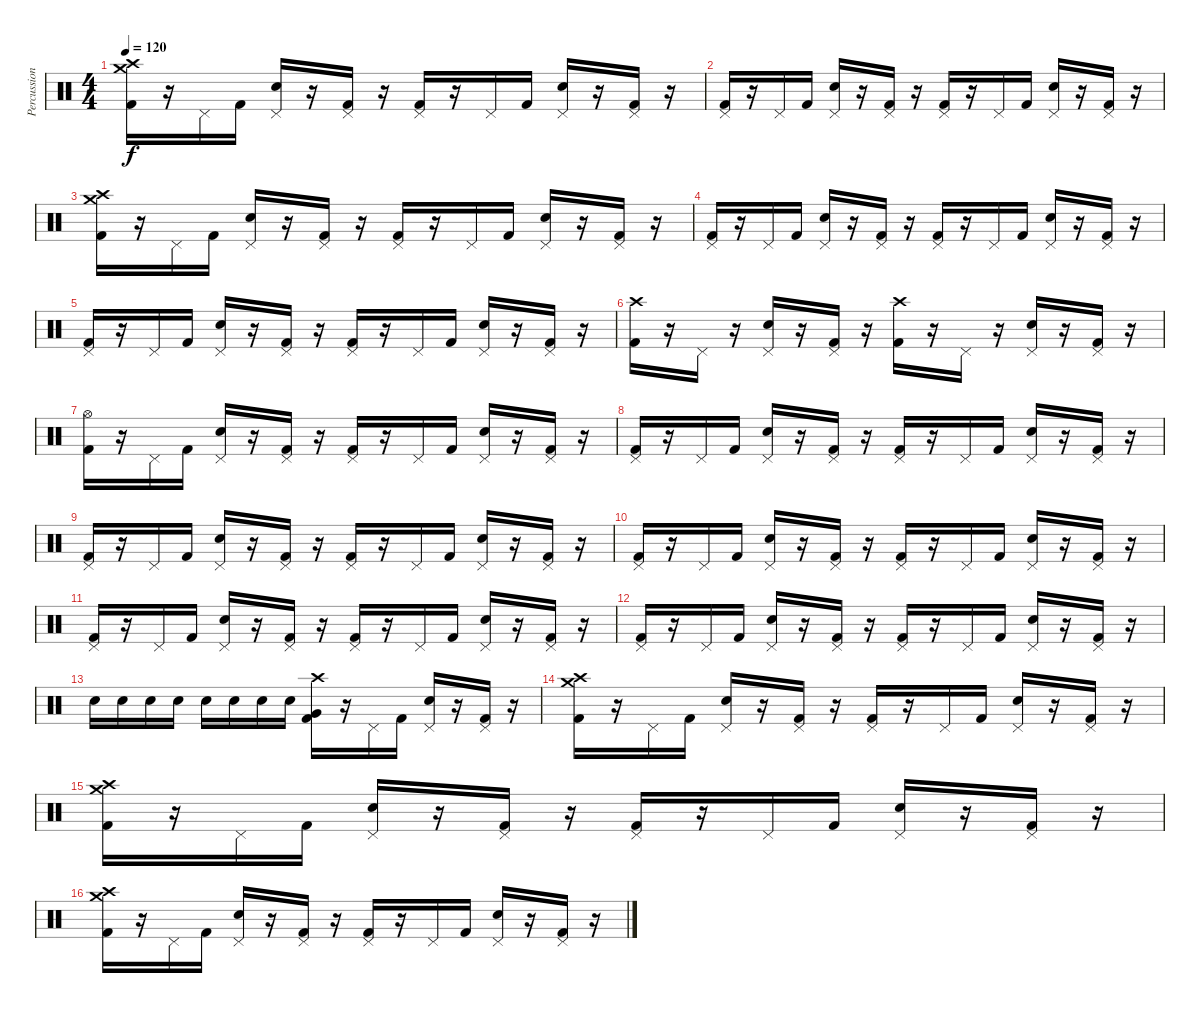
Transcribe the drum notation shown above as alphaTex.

\track ("Percussion" "Percussion") {instrument percussion}
\staff {score}
\articulation defaults
\ts (4 4)
\tempo 120
\clef neutral
\ks c
("Crash medium (hit)" "Crash high (hit)" "Kick (hit) 2").16{dy f} r.16 "Pedal Hi-Hat (hit)".16 "Kick (hit) 2".16 ("Pedal Hi-Hat (hit)" "Snare (hit) 2").16 r.16 ("Pedal Hi-Hat (hit)" "Kick (hit) 2").16 r.16 ("Pedal Hi-Hat (hit)" "Kick (hit) 2").16 r.16 "Pedal Hi-Hat (hit)".16 "Kick (hit) 2".16 ("Pedal Hi-Hat (hit)" "Snare (hit) 2").16 r.16 ("Pedal Hi-Hat (hit)" "Kick (hit) 2").16 r.16 |
("Pedal Hi-Hat (hit)" "Kick (hit) 2").16 r.16 "Pedal Hi-Hat (hit)".16 "Kick (hit) 2".16 ("Pedal Hi-Hat (hit)" "Snare (hit) 2").16 r.16 ("Pedal Hi-Hat (hit)" "Kick (hit) 2").16 r.16 ("Pedal Hi-Hat (hit)" "Kick (hit) 2").16 r.16 "Pedal Hi-Hat (hit)".16 "Kick (hit) 2".16 ("Pedal Hi-Hat (hit)" "Snare (hit) 2").16 r.16 ("Pedal Hi-Hat (hit)" "Kick (hit) 2").16 r.16 |
("Crash medium (hit)" "Crash high (hit)" "Kick (hit) 2").16 r.16 "Pedal Hi-Hat (hit)".16 "Kick (hit) 2".16 ("Pedal Hi-Hat (hit)" "Snare (hit) 2").16 r.16 ("Pedal Hi-Hat (hit)" "Kick (hit) 2").16 r.16 ("Pedal Hi-Hat (hit)" "Kick (hit) 2").16 r.16 "Pedal Hi-Hat (hit)".16 "Kick (hit) 2".16 ("Pedal Hi-Hat (hit)" "Snare (hit) 2").16 r.16 ("Pedal Hi-Hat (hit)" "Kick (hit) 2").16 r.16 |
("Pedal Hi-Hat (hit)" "Kick (hit) 2").16 r.16 "Pedal Hi-Hat (hit)".16 "Kick (hit) 2".16 ("Pedal Hi-Hat (hit)" "Snare (hit) 2").16 r.16 ("Pedal Hi-Hat (hit)" "Kick (hit) 2").16 r.16 ("Pedal Hi-Hat (hit)" "Kick (hit) 2").16 r.16 "Pedal Hi-Hat (hit)".16 "Kick (hit) 2".16 ("Pedal Hi-Hat (hit)" "Snare (hit) 2").16 r.16 ("Pedal Hi-Hat (hit)" "Kick (hit) 2").16 r.16 |
("Pedal Hi-Hat (hit)" "Kick (hit) 2").16 r.16 "Pedal Hi-Hat (hit)".16 "Kick (hit) 2".16 ("Pedal Hi-Hat (hit)" "Snare (hit) 2").16 r.16 ("Pedal Hi-Hat (hit)" "Kick (hit) 2").16 r.16 ("Pedal Hi-Hat (hit)" "Kick (hit) 2").16 r.16 "Pedal Hi-Hat (hit)".16 "Kick (hit) 2".16 ("Pedal Hi-Hat (hit)" "Snare (hit) 2").16 r.16 ("Pedal Hi-Hat (hit)" "Kick (hit) 2").16 r.16 |
("Crash high (hit)" "Kick (hit) 2").16 r.16 "Pedal Hi-Hat (hit)".16 r.16 ("Pedal Hi-Hat (hit)" "Snare (hit) 2").16 r.16 ("Pedal Hi-Hat (hit)" "Kick (hit) 2").16 r.16 ("Crash high (hit)" "Kick (hit) 2").16 r.16 "Pedal Hi-Hat (hit)".16 r.16 ("Pedal Hi-Hat (hit)" "Snare (hit) 2").16 r.16 ("Pedal Hi-Hat (hit)" "Kick (hit) 2").16 r.16 |
("Hi-Hat (open)" "Kick (hit) 2").16 r.16 "Pedal Hi-Hat (hit)".16 "Kick (hit) 2".16 ("Pedal Hi-Hat (hit)" "Snare (hit) 2").16 r.16 ("Pedal Hi-Hat (hit)" "Kick (hit) 2").16 r.16 ("Pedal Hi-Hat (hit)" "Kick (hit) 2").16 r.16 "Pedal Hi-Hat (hit)".16 "Kick (hit) 2".16 ("Pedal Hi-Hat (hit)" "Snare (hit) 2").16 r.16 ("Pedal Hi-Hat (hit)" "Kick (hit) 2").16 r.16 |
("Pedal Hi-Hat (hit)" "Kick (hit) 2").16 r.16 "Pedal Hi-Hat (hit)".16 "Kick (hit) 2".16 ("Pedal Hi-Hat (hit)" "Snare (hit) 2").16 r.16 ("Pedal Hi-Hat (hit)" "Kick (hit) 2").16 r.16 ("Pedal Hi-Hat (hit)" "Kick (hit) 2").16 r.16 "Pedal Hi-Hat (hit)".16 "Kick (hit) 2".16 ("Pedal Hi-Hat (hit)" "Snare (hit) 2").16 r.16 ("Pedal Hi-Hat (hit)" "Kick (hit) 2").16 r.16 |
("Pedal Hi-Hat (hit)" "Kick (hit) 2").16 r.16 "Pedal Hi-Hat (hit)".16 "Kick (hit) 2".16 ("Pedal Hi-Hat (hit)" "Snare (hit) 2").16 r.16 ("Pedal Hi-Hat (hit)" "Kick (hit) 2").16 r.16 ("Pedal Hi-Hat (hit)" "Kick (hit) 2").16 r.16 "Pedal Hi-Hat (hit)".16 "Kick (hit) 2".16 ("Pedal Hi-Hat (hit)" "Snare (hit) 2").16 r.16 ("Pedal Hi-Hat (hit)" "Kick (hit) 2").16 r.16 |
("Pedal Hi-Hat (hit)" "Kick (hit) 2").16 r.16 "Pedal Hi-Hat (hit)".16 "Kick (hit) 2".16 ("Pedal Hi-Hat (hit)" "Snare (hit) 2").16 r.16 ("Pedal Hi-Hat (hit)" "Kick (hit) 2").16 r.16 ("Pedal Hi-Hat (hit)" "Kick (hit) 2").16 r.16 "Pedal Hi-Hat (hit)".16 "Kick (hit) 2".16 ("Pedal Hi-Hat (hit)" "Snare (hit) 2").16 r.16 ("Pedal Hi-Hat (hit)" "Kick (hit) 2").16 r.16 |
("Pedal Hi-Hat (hit)" "Kick (hit) 2").16 r.16 "Pedal Hi-Hat (hit)".16 "Kick (hit) 2".16 ("Pedal Hi-Hat (hit)" "Snare (hit) 2").16 r.16 ("Pedal Hi-Hat (hit)" "Kick (hit) 2").16 r.16 ("Pedal Hi-Hat (hit)" "Kick (hit) 2").16 r.16 "Pedal Hi-Hat (hit)".16 "Kick (hit) 2".16 ("Pedal Hi-Hat (hit)" "Snare (hit) 2").16 r.16 ("Pedal Hi-Hat (hit)" "Kick (hit) 2").16 r.16 |
("Pedal Hi-Hat (hit)" "Kick (hit) 2").16 r.16 "Pedal Hi-Hat (hit)".16 "Kick (hit) 2".16 ("Pedal Hi-Hat (hit)" "Snare (hit) 2").16 r.16 ("Pedal Hi-Hat (hit)" "Kick (hit) 2").16 r.16 ("Pedal Hi-Hat (hit)" "Kick (hit) 2").16 r.16 "Pedal Hi-Hat (hit)".16 "Kick (hit) 2".16 ("Pedal Hi-Hat (hit)" "Snare (hit) 2").16 r.16 ("Pedal Hi-Hat (hit)" "Kick (hit) 2").16 r.16 |
"Snare (hit) 2".16 "Snare (hit) 2".16 "Snare (hit) 2".16 "Snare (hit) 2".16 "Snare (hit) 2".16 "Snare (hit) 2".16 "Snare (hit) 2".16 "Snare (hit) 2".16 ("Crash high (hit)" "Very Low Tom (hit)" "Kick (hit) 2").16 r.16 "Pedal Hi-Hat (hit)".16 "Kick (hit) 2".16 ("Pedal Hi-Hat (hit)" "Snare (hit) 2").16 r.16 ("Pedal Hi-Hat (hit)" "Kick (hit) 2").16 r.16 |
("Crash medium (hit)" "Crash high (hit)" "Kick (hit) 2").16 r.16 "Pedal Hi-Hat (hit)".16 "Kick (hit) 2".16 ("Pedal Hi-Hat (hit)" "Snare (hit) 2").16 r.16 ("Pedal Hi-Hat (hit)" "Kick (hit) 2").16 r.16 ("Pedal Hi-Hat (hit)" "Kick (hit) 2").16 r.16 "Pedal Hi-Hat (hit)".16 "Kick (hit) 2".16 ("Pedal Hi-Hat (hit)" "Snare (hit) 2").16 r.16 ("Pedal Hi-Hat (hit)" "Kick (hit) 2").16 r.16 |
("Crash medium (hit)" "Crash high (hit)" "Kick (hit) 2").16 r.16 "Pedal Hi-Hat (hit)".16 "Kick (hit) 2".16 ("Pedal Hi-Hat (hit)" "Snare (hit) 2").16 r.16 ("Pedal Hi-Hat (hit)" "Kick (hit) 2").16 r.16 ("Pedal Hi-Hat (hit)" "Kick (hit) 2").16 r.16 "Pedal Hi-Hat (hit)".16 "Kick (hit) 2".16 ("Pedal Hi-Hat (hit)" "Snare (hit) 2").16 r.16 ("Pedal Hi-Hat (hit)" "Kick (hit) 2").16 r.16 |
("Crash medium (hit)" "Crash high (hit)" "Kick (hit) 2").16 r.16 "Pedal Hi-Hat (hit)".16 "Kick (hit) 2".16 ("Pedal Hi-Hat (hit)" "Snare (hit) 2").16 r.16 ("Pedal Hi-Hat (hit)" "Kick (hit) 2").16 r.16 ("Pedal Hi-Hat (hit)" "Kick (hit) 2").16 r.16 "Pedal Hi-Hat (hit)".16 "Kick (hit) 2".16 ("Pedal Hi-Hat (hit)" "Snare (hit) 2").16 r.16 ("Pedal Hi-Hat (hit)" "Kick (hit) 2").16 r.16
